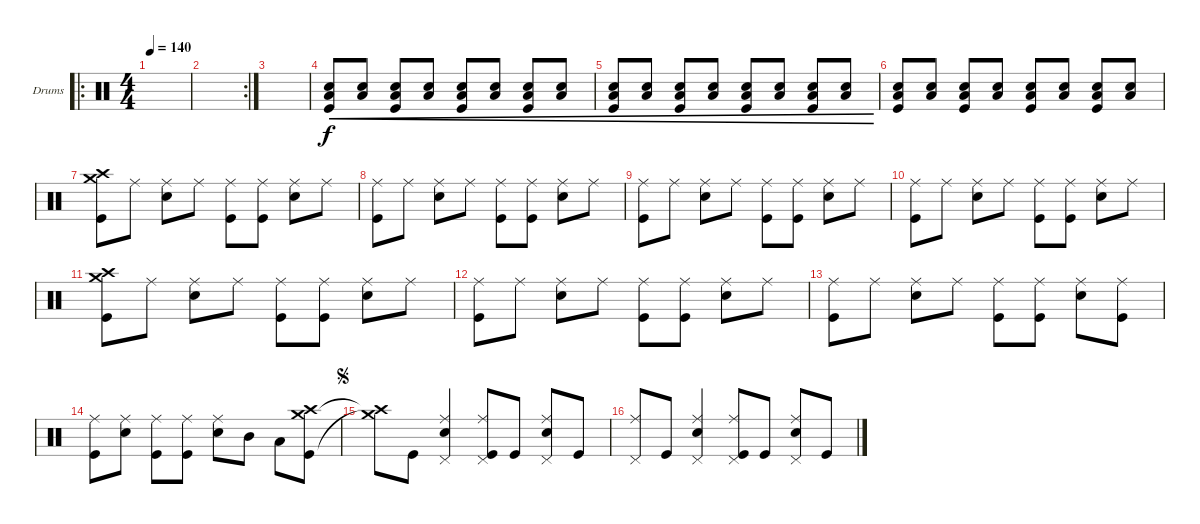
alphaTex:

\defaultSystemsLayout 4
\bracketExtendMode groupsimilarinstruments
\firstSystemTrackNameOrientation horizontal
\otherSystemsTrackNameOrientation horizontal
\track ("Steve" "Drums") {instrument percussion}
\staff {score}
\articulation defaults
\ro
\ts (4 4)
\tempo 140
\clef neutral
\ks c
|
\rc 2
|
|
("Snare (hit) 2" "Low Tom (hit)" "Kick (hit)").8{cre} ("Snare (hit) 2" "Low Tom (hit)").8{cre} ("Snare (hit) 2" "Low Tom (hit)" "Kick (hit)").8{cre} ("Snare (hit) 2" "Low Tom (hit)").8{cre} ("Snare (hit) 2" "Low Tom (hit)" "Kick (hit)").8{cre} ("Snare (hit) 2" "Low Tom (hit)").8{cre} ("Snare (hit) 2" "Low Tom (hit)" "Kick (hit)").8{cre} ("Snare (hit) 2" "Low Tom (hit)").8{cre} |
("Snare (hit) 2" "Low Tom (hit)" "Kick (hit)").8{cre} ("Snare (hit) 2" "Low Tom (hit)").8{cre} ("Snare (hit) 2" "Low Tom (hit)" "Kick (hit)").8{cre} ("Snare (hit) 2" "Low Tom (hit)").8{cre} ("Snare (hit) 2" "Low Tom (hit)" "Kick (hit)").8{cre} ("Snare (hit) 2" "Low Tom (hit)").8{cre} ("Snare (hit) 2" "Low Tom (hit)" "Kick (hit)").8{cre} ("Snare (hit) 2" "Low Tom (hit)").8{cre} |
("Snare (hit) 2" "Low Tom (hit)" "Kick (hit)").8{dy f} ("Snare (hit) 2" "Low Tom (hit)").8 ("Snare (hit) 2" "Low Tom (hit)" "Kick (hit)").8 ("Snare (hit) 2" "Low Tom (hit)").8 ("Snare (hit) 2" "Low Tom (hit)" "Kick (hit)").8 ("Snare (hit) 2" "Low Tom (hit)").8 ("Snare (hit) 2" "Low Tom (hit)" "Kick (hit)").8 ("Snare (hit) 2" "Low Tom (hit)").8 |
("Kick (hit)" "Crash high (hit)" "Crash medium (hit)").8 "Ride (middle)".8 ("Ride (middle)" "Snare (hit) 2").8 "Ride (middle)".8 ("Ride (middle)" "Kick (hit)").8 ("Ride (middle)" "Kick (hit)").8 ("Ride (middle)" "Snare (hit) 2").8 "Ride (middle)".8 |
("Kick (hit)" "Ride (middle)").8 "Ride (middle)".8 ("Ride (middle)" "Snare (hit) 2").8 "Ride (middle)".8 ("Ride (middle)" "Kick (hit)").8 ("Ride (middle)" "Kick (hit)").8 ("Ride (middle)" "Snare (hit) 2").8 "Ride (middle)".8 |
("Kick (hit)" "Ride (middle)").8 "Ride (middle)".8 ("Ride (middle)" "Snare (hit) 2").8 "Ride (middle)".8 ("Ride (middle)" "Kick (hit)").8 ("Ride (middle)" "Kick (hit)").8 ("Ride (middle)" "Snare (hit) 2").8 "Ride (middle)".8 |
("Kick (hit)" "Ride (middle)").8 "Ride (middle)".8 ("Ride (middle)" "Snare (hit) 2").8 "Ride (middle)".8 ("Ride (middle)" "Kick (hit)").8 ("Ride (middle)" "Kick (hit)").8 ("Ride (middle)" "Snare (hit) 2").8 "Ride (middle)".8 |
("Kick (hit)" "Crash high (hit)" "Crash medium (hit)").8 "Ride (middle)".8 ("Ride (middle)" "Snare (hit) 2").8 "Ride (middle)".8 ("Ride (middle)" "Kick (hit)").8 ("Ride (middle)" "Kick (hit)").8 ("Ride (middle)" "Snare (hit) 2").8 "Ride (middle)".8 |
("Kick (hit)" "Ride (middle)").8 "Ride (middle)".8 ("Ride (middle)" "Snare (hit) 2").8 "Ride (middle)".8 ("Ride (middle)" "Kick (hit)").8 ("Ride (middle)" "Kick (hit)").8 ("Ride (middle)" "Snare (hit) 2").8 "Ride (middle)".8 |
("Kick (hit)" "Ride (middle)").8 "Ride (middle)".8 ("Ride (middle)" "Snare (hit) 2").8 "Ride (middle)".8 ("Ride (middle)" "Kick (hit)").8 ("Ride (middle)" "Kick (hit)").8 ("Ride (middle)" "Snare (hit) 2").8 ("Ride (middle)" "Kick (hit)").8 |
("Kick (hit)" "Ride (middle)").8 ("Ride (middle)" "Snare (hit) 2").8 ("Ride (middle)" "Kick (hit)").8 ("Ride (middle)" "Kick (hit)").8 ("Snare (hit) 2" "Ride (middle)").8 "Mid Tom (hit)".8 "Low Tom (hit)".8 ("Crash medium (hit)" "Kick (hit)" "Crash high (hit)").8 |
\jump segno
("Crash high (hit)"{t} "Crash medium (hit)"{t}).8 "Kick (hit)".8 ("Snare (hit) 2" "Ride (middle)" "Pedal Hi-Hat (hit)").4 ("Kick (hit)" "Ride (middle)" "Pedal Hi-Hat (hit)").8 "Kick (hit)".8 ("Snare (hit) 2" "Ride (middle)" "Pedal Hi-Hat (hit)").8 "Kick (hit)".8 |
("Ride (middle)" "Pedal Hi-Hat (hit)").8 "Kick (hit)".8 ("Snare (hit) 2" "Ride (middle)" "Pedal Hi-Hat (hit)").4 ("Kick (hit)" "Ride (middle)" "Pedal Hi-Hat (hit)").8 "Kick (hit)".8 ("Snare (hit) 2" "Ride (middle)" "Pedal Hi-Hat (hit)").8 "Kick (hit)".8
